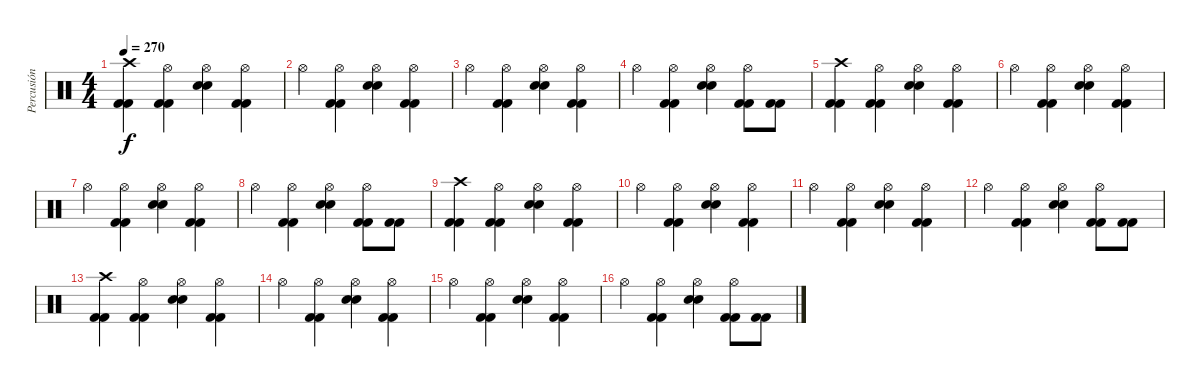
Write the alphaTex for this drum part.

\track ("Percusión" "Percusión") {instrument percussion}
\staff {score}
\articulation defaults
\ts (4 4)
\tempo 270
\clef neutral
\ks c
("Kick (hit) 2" "Kick (hit) 2" "Crash high (hit)").4{dy f} ("Kick (hit) 2" "Kick (hit) 2" "Hi-Hat (open)").4 ("Electric Snare (hit)" "Electric Snare (hit)" "Hi-Hat (open)").4 ("Kick (hit) 2" "Kick (hit) 2" "Hi-Hat (open)").4 |
"Hi-Hat (open)".4 ("Kick (hit) 2" "Kick (hit) 2" "Hi-Hat (open)").4 ("Electric Snare (hit)" "Electric Snare (hit)" "Hi-Hat (open)").4 ("Kick (hit) 2" "Kick (hit) 2" "Hi-Hat (open)").4 |
"Hi-Hat (open)".4 ("Kick (hit) 2" "Kick (hit) 2" "Hi-Hat (open)").4 ("Electric Snare (hit)" "Electric Snare (hit)" "Hi-Hat (open)").4 ("Kick (hit) 2" "Kick (hit) 2" "Hi-Hat (open)").4 |
"Hi-Hat (open)".4 ("Kick (hit) 2" "Kick (hit) 2" "Hi-Hat (open)").4 ("Electric Snare (hit)" "Electric Snare (hit)" "Hi-Hat (open)").4 ("Kick (hit) 2" "Kick (hit) 2" "Hi-Hat (open)").8 ("Kick (hit) 2" "Kick (hit) 2").8 |
("Kick (hit) 2" "Kick (hit) 2" "Crash high (hit)").4 ("Kick (hit) 2" "Kick (hit) 2" "Hi-Hat (open)").4 ("Electric Snare (hit)" "Electric Snare (hit)" "Hi-Hat (open)").4 ("Kick (hit) 2" "Kick (hit) 2" "Hi-Hat (open)").4 |
"Hi-Hat (open)".4 ("Kick (hit) 2" "Kick (hit) 2" "Hi-Hat (open)").4 ("Electric Snare (hit)" "Electric Snare (hit)" "Hi-Hat (open)").4 ("Kick (hit) 2" "Kick (hit) 2" "Hi-Hat (open)").4 |
"Hi-Hat (open)".4 ("Kick (hit) 2" "Kick (hit) 2" "Hi-Hat (open)").4 ("Electric Snare (hit)" "Electric Snare (hit)" "Hi-Hat (open)").4 ("Kick (hit) 2" "Kick (hit) 2" "Hi-Hat (open)").4 |
"Hi-Hat (open)".4 ("Kick (hit) 2" "Kick (hit) 2" "Hi-Hat (open)").4 ("Electric Snare (hit)" "Electric Snare (hit)" "Hi-Hat (open)").4 ("Kick (hit) 2" "Kick (hit) 2" "Hi-Hat (open)").8 ("Kick (hit) 2" "Kick (hit) 2").8 |
("Kick (hit) 2" "Kick (hit) 2" "Crash high (hit)").4 ("Kick (hit) 2" "Kick (hit) 2" "Hi-Hat (open)").4 ("Electric Snare (hit)" "Electric Snare (hit)" "Hi-Hat (open)").4 ("Kick (hit) 2" "Kick (hit) 2" "Hi-Hat (open)").4 |
"Hi-Hat (open)".4 ("Kick (hit) 2" "Kick (hit) 2" "Hi-Hat (open)").4 ("Electric Snare (hit)" "Electric Snare (hit)" "Hi-Hat (open)").4 ("Kick (hit) 2" "Kick (hit) 2" "Hi-Hat (open)").4 |
"Hi-Hat (open)".4 ("Kick (hit) 2" "Kick (hit) 2" "Hi-Hat (open)").4 ("Electric Snare (hit)" "Electric Snare (hit)" "Hi-Hat (open)").4 ("Kick (hit) 2" "Kick (hit) 2" "Hi-Hat (open)").4 |
"Hi-Hat (open)".4 ("Kick (hit) 2" "Kick (hit) 2" "Hi-Hat (open)").4 ("Electric Snare (hit)" "Electric Snare (hit)" "Hi-Hat (open)").4 ("Kick (hit) 2" "Kick (hit) 2" "Hi-Hat (open)").8 ("Kick (hit) 2" "Kick (hit) 2").8 |
("Kick (hit) 2" "Kick (hit) 2" "Crash high (hit)").4 ("Kick (hit) 2" "Kick (hit) 2" "Hi-Hat (open)").4 ("Electric Snare (hit)" "Electric Snare (hit)" "Hi-Hat (open)").4 ("Kick (hit) 2" "Kick (hit) 2" "Hi-Hat (open)").4 |
"Hi-Hat (open)".4 ("Kick (hit) 2" "Kick (hit) 2" "Hi-Hat (open)").4 ("Electric Snare (hit)" "Electric Snare (hit)" "Hi-Hat (open)").4 ("Kick (hit) 2" "Kick (hit) 2" "Hi-Hat (open)").4 |
"Hi-Hat (open)".4 ("Kick (hit) 2" "Kick (hit) 2" "Hi-Hat (open)").4 ("Electric Snare (hit)" "Electric Snare (hit)" "Hi-Hat (open)").4 ("Kick (hit) 2" "Kick (hit) 2" "Hi-Hat (open)").4 |
"Hi-Hat (open)".4 ("Kick (hit) 2" "Kick (hit) 2" "Hi-Hat (open)").4 ("Electric Snare (hit)" "Electric Snare (hit)" "Hi-Hat (open)").4 ("Kick (hit) 2" "Kick (hit) 2" "Hi-Hat (open)").8 ("Kick (hit) 2" "Kick (hit) 2").8
